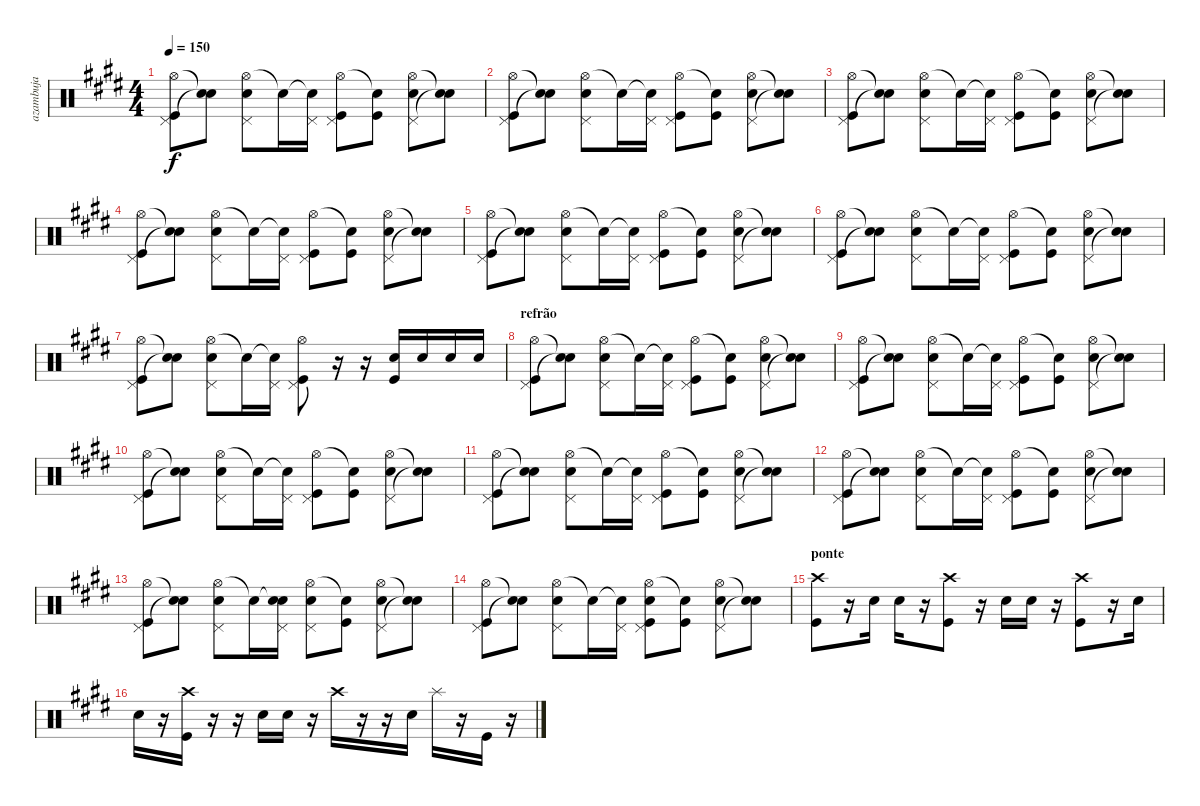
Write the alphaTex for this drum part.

\track ("azambuja" "azambuja") {instrument percussion}
\staff {score}
\articulation defaults
\ts (4 4)
\tempo 150
\clef neutral
\ks e
("Hi-Hat (open)" "Pedal Hi-Hat (hit)" "Kick (hit)").8{dy f} ("Snare (hit)"{t} "Snare (hit)"{t}).8 ("Hi-Hat (open)" "Pedal Hi-Hat (hit)" "Snare (hit) 2").8 "Snare (hit)"{t}.16 ("Snare (hit)"{t} "Pedal Hi-Hat (hit)").16 ("Hi-Hat (open)" "Pedal Hi-Hat (hit)" "Kick (hit)").8 ("Snare (hit)"{t} "Kick (hit)").8 ("Hi-Hat (open)" "Pedal Hi-Hat (hit)" "Snare (hit) 2").8 ("Snare (hit)"{t} "Snare (hit)"{t}).8 |
("Hi-Hat (open)" "Pedal Hi-Hat (hit)" "Kick (hit)").8 ("Snare (hit)"{t} "Snare (hit)"{t}).8 ("Hi-Hat (open)" "Pedal Hi-Hat (hit)" "Snare (hit) 2").8 "Snare (hit)"{t}.16 ("Snare (hit)"{t} "Pedal Hi-Hat (hit)").16 ("Hi-Hat (open)" "Pedal Hi-Hat (hit)" "Kick (hit)").8 ("Snare (hit)"{t} "Kick (hit)").8 ("Hi-Hat (open)" "Pedal Hi-Hat (hit)" "Snare (hit) 2").8 ("Snare (hit)"{t} "Snare (hit)"{t}).8 |
("Hi-Hat (open)" "Pedal Hi-Hat (hit)" "Kick (hit)").8 ("Snare (hit)"{t} "Snare (hit)"{t}).8 ("Hi-Hat (open)" "Pedal Hi-Hat (hit)" "Snare (hit) 2").8 "Snare (hit)"{t}.16 ("Snare (hit)"{t} "Pedal Hi-Hat (hit)").16 ("Hi-Hat (open)" "Pedal Hi-Hat (hit)" "Kick (hit)").8 ("Snare (hit)"{t} "Kick (hit)").8 ("Hi-Hat (open)" "Pedal Hi-Hat (hit)" "Snare (hit) 2").8 ("Snare (hit)"{t} "Snare (hit)"{t}).8 |
("Hi-Hat (open)" "Pedal Hi-Hat (hit)" "Kick (hit)").8 ("Snare (hit)"{t} "Snare (hit)"{t}).8 ("Hi-Hat (open)" "Pedal Hi-Hat (hit)" "Snare (hit) 2").8 "Snare (hit)"{t}.16 ("Snare (hit)"{t} "Pedal Hi-Hat (hit)").16 ("Hi-Hat (open)" "Pedal Hi-Hat (hit)" "Kick (hit)").8 ("Snare (hit)"{t} "Kick (hit)").8 ("Hi-Hat (open)" "Pedal Hi-Hat (hit)" "Snare (hit) 2").8 ("Snare (hit)"{t} "Snare (hit)"{t}).8 |
("Hi-Hat (open)" "Pedal Hi-Hat (hit)" "Kick (hit)").8 ("Snare (hit)"{t} "Snare (hit)"{t}).8 ("Hi-Hat (open)" "Pedal Hi-Hat (hit)" "Snare (hit) 2").8 "Snare (hit)"{t}.16 ("Snare (hit)"{t} "Pedal Hi-Hat (hit)").16 ("Hi-Hat (open)" "Pedal Hi-Hat (hit)" "Kick (hit)").8 ("Snare (hit)"{t} "Kick (hit)").8 ("Hi-Hat (open)" "Pedal Hi-Hat (hit)" "Snare (hit) 2").8 ("Snare (hit)"{t} "Snare (hit)"{t}).8 |
("Hi-Hat (open)" "Pedal Hi-Hat (hit)" "Kick (hit)").8 ("Snare (hit)"{t} "Snare (hit)"{t}).8 ("Hi-Hat (open)" "Pedal Hi-Hat (hit)" "Snare (hit) 2").8 "Snare (hit)"{t}.16 ("Snare (hit)"{t} "Pedal Hi-Hat (hit)").16 ("Hi-Hat (open)" "Pedal Hi-Hat (hit)" "Kick (hit)").8 ("Snare (hit)"{t} "Kick (hit)").8 ("Hi-Hat (open)" "Pedal Hi-Hat (hit)" "Snare (hit) 2").8 ("Snare (hit)"{t} "Snare (hit)"{t}).8 |
("Hi-Hat (open)" "Pedal Hi-Hat (hit)" "Kick (hit)").8 ("Snare (hit)"{t} "Snare (hit)"{t}).8 ("Hi-Hat (open)" "Pedal Hi-Hat (hit)" "Snare (hit) 2").8 "Snare (hit)"{t}.16 ("Snare (hit)"{t} "Pedal Hi-Hat (hit)").16 ("Hi-Hat (open)" "Pedal Hi-Hat (hit)" "Kick (hit)").8 r.16 r.16 ("Snare (hit) 2" "Kick (hit)").16 "Snare (hit) 2".16 "Snare (hit) 2".16 "Snare (hit) 2".16 |
\section ("" "refrão")
("Hi-Hat (open)" "Pedal Hi-Hat (hit)" "Kick (hit)").8 ("Snare (hit)"{t} "Snare (hit)"{t}).8 ("Hi-Hat (open)" "Pedal Hi-Hat (hit)" "Snare (hit) 2").8 "Snare (hit)"{t}.16 ("Snare (hit)"{t} "Pedal Hi-Hat (hit)").16 ("Hi-Hat (open)" "Pedal Hi-Hat (hit)" "Kick (hit)").8 ("Snare (hit)"{t} "Kick (hit)").8 ("Hi-Hat (open)" "Pedal Hi-Hat (hit)" "Snare (hit) 2").8 ("Snare (hit)"{t} "Snare (hit)"{t}).8 |
("Hi-Hat (open)" "Pedal Hi-Hat (hit)" "Kick (hit)").8 ("Snare (hit)"{t} "Snare (hit)"{t}).8 ("Hi-Hat (open)" "Pedal Hi-Hat (hit)" "Snare (hit) 2").8 "Snare (hit)"{t}.16 ("Snare (hit)"{t} "Pedal Hi-Hat (hit)").16 ("Hi-Hat (open)" "Pedal Hi-Hat (hit)" "Kick (hit)").8 ("Snare (hit)"{t} "Kick (hit)").8 ("Hi-Hat (open)" "Pedal Hi-Hat (hit)" "Snare (hit) 2").8 ("Snare (hit)"{t} "Snare (hit)"{t}).8 |
("Hi-Hat (open)" "Pedal Hi-Hat (hit)" "Kick (hit)").8 ("Snare (hit)"{t} "Snare (hit)"{t}).8 ("Hi-Hat (open)" "Pedal Hi-Hat (hit)" "Snare (hit) 2").8 "Snare (hit)"{t}.16 ("Snare (hit)"{t} "Pedal Hi-Hat (hit)").16 ("Hi-Hat (open)" "Pedal Hi-Hat (hit)" "Kick (hit)").8 ("Snare (hit)"{t} "Kick (hit)").8 ("Hi-Hat (open)" "Pedal Hi-Hat (hit)" "Snare (hit) 2").8 ("Snare (hit)"{t} "Snare (hit)"{t}).8 |
("Hi-Hat (open)" "Pedal Hi-Hat (hit)" "Kick (hit)").8 ("Snare (hit)"{t} "Snare (hit)"{t}).8 ("Hi-Hat (open)" "Pedal Hi-Hat (hit)" "Snare (hit) 2").8 "Snare (hit)"{t}.16 ("Snare (hit)"{t} "Pedal Hi-Hat (hit)").16 ("Hi-Hat (open)" "Pedal Hi-Hat (hit)" "Kick (hit)").8 ("Snare (hit)"{t} "Kick (hit)").8 ("Hi-Hat (open)" "Pedal Hi-Hat (hit)" "Snare (hit) 2").8 ("Snare (hit)"{t} "Snare (hit)"{t}).8 |
("Hi-Hat (open)" "Pedal Hi-Hat (hit)" "Kick (hit)").8 ("Snare (hit)"{t} "Snare (hit)"{t}).8 ("Hi-Hat (open)" "Pedal Hi-Hat (hit)" "Snare (hit) 2").8 "Snare (hit)"{t}.16 ("Snare (hit)"{t} "Pedal Hi-Hat (hit)").16 ("Hi-Hat (open)" "Pedal Hi-Hat (hit)" "Kick (hit)").8 ("Snare (hit)"{t} "Kick (hit)").8 ("Hi-Hat (open)" "Pedal Hi-Hat (hit)" "Snare (hit) 2").8 ("Snare (hit)"{t} "Snare (hit)"{t}).8 |
("Hi-Hat (open)" "Pedal Hi-Hat (hit)" "Kick (hit)").8 ("Snare (hit)"{t} "Snare (hit)"{t}).8 ("Hi-Hat (open)" "Pedal Hi-Hat (hit)" "Snare (hit) 2").8 "Snare (hit)"{t}.16 ("Snare (hit)"{t} "Pedal Hi-Hat (hit)" "Snare (hit) 2").16 ("Hi-Hat (open)" "Pedal Hi-Hat (hit)" "Snare (hit) 2").8 ("Snare (hit)"{t} "Kick (hit)").8 ("Hi-Hat (open)" "Pedal Hi-Hat (hit)" "Snare (hit) 2").8 ("Snare (hit)"{t} "Snare (hit)"{t}).8 |
("Hi-Hat (open)" "Pedal Hi-Hat (hit)" "Kick (hit)").8 ("Snare (hit)"{t} "Snare (hit)"{t}).8 ("Hi-Hat (open)" "Pedal Hi-Hat (hit)" "Snare (hit) 2").8 "Snare (hit)"{t}.16 ("Snare (hit)"{t} "Pedal Hi-Hat (hit)").16 ("Hi-Hat (open)" "Pedal Hi-Hat (hit)" "Snare (hit) 2" "Kick (hit)").8 ("Snare (hit)"{t} "Kick (hit)").8 ("Hi-Hat (open)" "Pedal Hi-Hat (hit)" "Snare (hit) 2").8 ("Snare (hit)"{t} "Snare (hit)"{t}).8 |
\section ("" "ponte")
("Crash high (hit)" "Kick (hit)").8 r.16 "Snare (hit) 2".16 "Snare (hit) 2".16 r.16 ("Crash high (hit)" "Kick (hit)").8 r.16 "Snare (hit) 2".16 "Snare (hit) 2".16 r.16 ("Crash high (hit)" "Kick (hit)").8 r.16 "Snare (hit) 2".16 |
"Snare (hit) 2".16 r.16 ("Crash high (hit)" "Kick (hit)").16 r.16 r.16 "Snare (hit) 2".16 "Snare (hit) 2".16 r.16 "Crash high (hit)".16 r.16 r.16 "Snare (hit) 2".16 "Splash (hit)".16 r.16 "Kick (hit)".16 r.16
